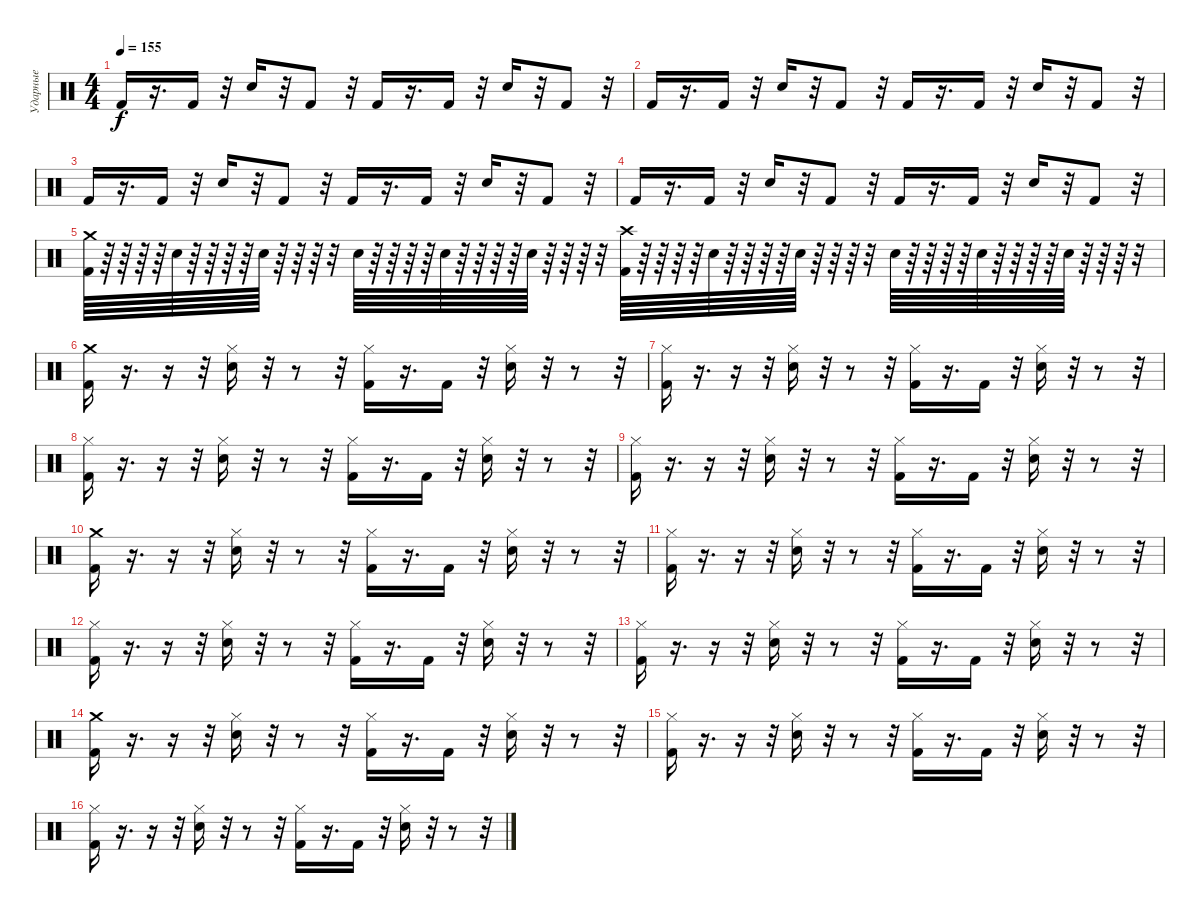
\track ("Ударные" "Ударные") {instrument percussion}
\staff {score}
\articulation defaults
\ts (4 4)
\tempo 155
\clef neutral
\ks c "Kick (hit) 2".16{dy f}
r.16{d} "Kick (hit) 2".16 r.32 "Snare (hit) 2".16 r.32 "Kick (hit) 2".8 r.32 "Kick (hit) 2".16 r.16{d} "Kick (hit) 2".16 r.32 "Snare (hit) 2".16 r.32 "Kick (hit) 2".8 r.32 |
"Kick (hit) 2".16 r.16{d} "Kick (hit) 2".16 r.32 "Snare (hit) 2".16 r.32 "Kick (hit) 2".8 r.32 "Kick (hit) 2".16 r.16{d} "Kick (hit) 2".16 r.32 "Snare (hit) 2".16 r.32 "Kick (hit) 2".8 r.32 |
"Kick (hit) 2".16 r.16{d} "Kick (hit) 2".16 r.32 "Snare (hit) 2".16 r.32 "Kick (hit) 2".8 r.32 "Kick (hit) 2".16 r.16{d} "Kick (hit) 2".16 r.32 "Snare (hit) 2".16 r.32 "Kick (hit) 2".8 r.32 |
"Kick (hit) 2".16 r.16{d} "Kick (hit) 2".16 r.32 "Snare (hit) 2".16 r.32 "Kick (hit) 2".8 r.32 "Kick (hit) 2".16 r.16{d} "Kick (hit) 2".16 r.32 "Snare (hit) 2".16 r.32 "Kick (hit) 2".8 r.32 |
("Crash medium (hit)" "Kick (hit) 2").64 r.64 r.64 r.64 r.64 "Snare (hit) 2".64 r.64 r.64 r.64 r.64 "Snare (hit) 2".64 r.64 r.64 r.64 r.32 "Electric Snare (hit)".64 r.64 r.64 r.64 r.64 "Electric Snare (hit)".64 r.64 r.64 r.64 r.64 "Electric Snare (hit)".64 r.64 r.64 r.64 r.32 ("Crash high (hit)" "Kick (hit) 2").64 r.64 r.64 r.64 r.64 "Snare (hit) 2".64 r.64 r.64 r.64 r.64 "Electric Snare (hit)".64 r.64 r.64 r.64 r.32 "Electric Snare (hit)".64 r.64 r.64 r.64 r.64 "Electric Snare (hit)".64 r.64 r.64 r.64 r.64 "Electric Snare (hit)".64 r.64 r.64 r.64 r.32 |
("Crash medium (hit)" "Kick (hit) 2").16 r.16{d} r.16 r.32 ("Snare (hit) 2" "Hi-Hat (closed)").16 r.32 r.8 r.32 ("Hi-Hat (closed)" "Kick (hit) 2").16 r.16{d} "Kick (hit) 2".16 r.32 ("Snare (hit) 2" "Hi-Hat (closed)").16 r.32 r.8 r.32 |
("Hi-Hat (closed)" "Kick (hit) 2").16 r.16{d} r.16 r.32 ("Snare (hit) 2" "Hi-Hat (closed)").16 r.32 r.8 r.32 ("Hi-Hat (closed)" "Kick (hit) 2").16 r.16{d} "Kick (hit) 2".16 r.32 ("Snare (hit) 2" "Hi-Hat (closed)").16 r.32 r.8 r.32 |
("Hi-Hat (closed)" "Kick (hit) 2").16 r.16{d} r.16 r.32 ("Snare (hit) 2" "Hi-Hat (closed)").16 r.32 r.8 r.32 ("Hi-Hat (closed)" "Kick (hit) 2").16 r.16{d} "Kick (hit) 2".16 r.32 ("Snare (hit) 2" "Hi-Hat (closed)").16 r.32 r.8 r.32 |
("Hi-Hat (closed)" "Kick (hit) 2").16 r.16{d} r.16 r.32 ("Snare (hit) 2" "Hi-Hat (closed)").16 r.32 r.8 r.32 ("Hi-Hat (closed)" "Kick (hit) 2").16 r.16{d} "Kick (hit) 2".16 r.32 ("Snare (hit) 2" "Hi-Hat (closed)").16 r.32 r.8 r.32 |
("Crash medium (hit)" "Kick (hit) 2").16 r.16{d} r.16 r.32 ("Snare (hit) 2" "Hi-Hat (closed)").16 r.32 r.8 r.32 ("Hi-Hat (closed)" "Kick (hit) 2").16 r.16{d} "Kick (hit) 2".16 r.32 ("Snare (hit) 2" "Hi-Hat (closed)").16 r.32 r.8 r.32 |
("Hi-Hat (closed)" "Kick (hit) 2").16 r.16{d} r.16 r.32 ("Snare (hit) 2" "Hi-Hat (closed)").16 r.32 r.8 r.32 ("Hi-Hat (closed)" "Kick (hit) 2").16 r.16{d} "Kick (hit) 2".16 r.32 ("Snare (hit) 2" "Hi-Hat (closed)").16 r.32 r.8 r.32 |
("Hi-Hat (closed)" "Kick (hit) 2").16 r.16{d} r.16 r.32 ("Snare (hit) 2" "Hi-Hat (closed)").16 r.32 r.8 r.32 ("Hi-Hat (closed)" "Kick (hit) 2").16 r.16{d} "Kick (hit) 2".16 r.32 ("Snare (hit) 2" "Hi-Hat (closed)").16 r.32 r.8 r.32 |
("Hi-Hat (closed)" "Kick (hit) 2").16 r.16{d} r.16 r.32 ("Snare (hit) 2" "Hi-Hat (closed)").16 r.32 r.8 r.32 ("Hi-Hat (closed)" "Kick (hit) 2").16 r.16{d} "Kick (hit) 2".16 r.32 ("Snare (hit) 2" "Hi-Hat (closed)").16 r.32 r.8 r.32 |
("Crash medium (hit)" "Kick (hit) 2").16 r.16{d} r.16 r.32 ("Snare (hit) 2" "Hi-Hat (closed)").16 r.32 r.8 r.32 ("Hi-Hat (closed)" "Kick (hit) 2").16 r.16{d} "Kick (hit) 2".16 r.32 ("Snare (hit) 2" "Hi-Hat (closed)").16 r.32 r.8 r.32 |
("Hi-Hat (closed)" "Kick (hit) 2").16 r.16{d} r.16 r.32 ("Snare (hit) 2" "Hi-Hat (closed)").16 r.32 r.8 r.32 ("Hi-Hat (closed)" "Kick (hit) 2").16 r.16{d} "Kick (hit) 2".16 r.32 ("Snare (hit) 2" "Hi-Hat (closed)").16 r.32 r.8 r.32 |
("Hi-Hat (closed)" "Kick (hit) 2").16 r.16{d} r.16 r.32 ("Snare (hit) 2" "Hi-Hat (closed)").16 r.32 r.8 r.32 ("Hi-Hat (closed)" "Kick (hit) 2").16 r.16{d} "Kick (hit) 2".16 r.32 ("Snare (hit) 2" "Hi-Hat (closed)").16 r.32 r.8 r.32
